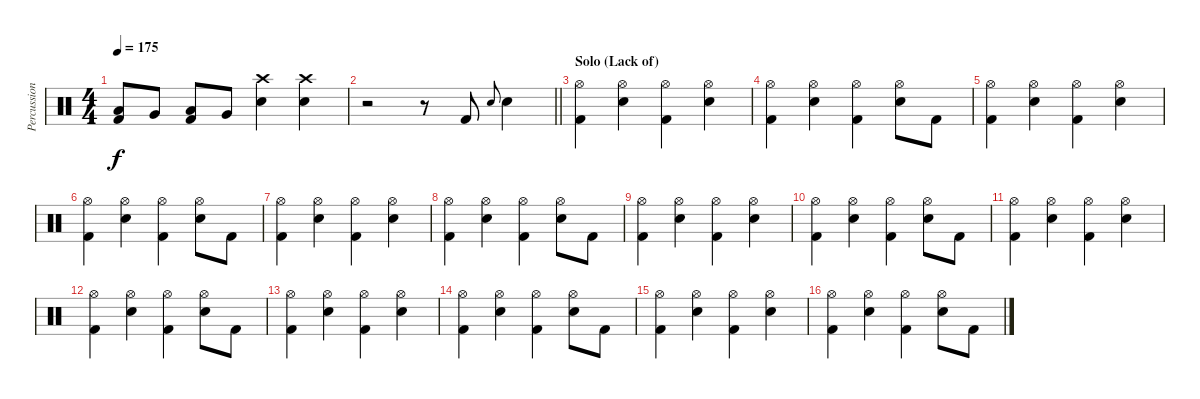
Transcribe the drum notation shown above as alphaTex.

\track ("Percussion" "Percussion") {instrument percussion}
\staff {score}
\articulation defaults
\ts (4 4)
\tempo 175
\clef neutral
\ks c
("Low Floor Tom (hit)" "Kick (hit) 2").8{dy f} "Very Low Tom (hit)".8 ("Low Floor Tom (hit)" "Kick (hit) 2").8 "Very Low Tom (hit)".8 ("Crash high (hit)" "Electric Snare (hit)").4 ("Crash high (hit)" "Electric Snare (hit)").4 |
\barLineRight lightlight
r.2 r.8 "Kick (hit) 2".8 "Electric Snare (hit)".8{gr onbeat} "Electric Snare (hit)".4 |
\section ("" "Solo (Lack of)")
("Hi-Hat (open)" "Kick (hit) 2").4 ("Hi-Hat (open)" "Electric Snare (hit)").4 ("Hi-Hat (open)" "Kick (hit) 2").4 ("Hi-Hat (open)" "Electric Snare (hit)").4 |
("Hi-Hat (open)" "Kick (hit) 2").4 ("Hi-Hat (open)" "Electric Snare (hit)").4 ("Hi-Hat (open)" "Kick (hit) 2").4 ("Hi-Hat (open)" "Electric Snare (hit)").8 "Kick (hit) 2".8 |
("Hi-Hat (open)" "Kick (hit) 2").4 ("Hi-Hat (open)" "Electric Snare (hit)").4 ("Hi-Hat (open)" "Kick (hit) 2").4 ("Hi-Hat (open)" "Electric Snare (hit)").4 |
("Hi-Hat (open)" "Kick (hit) 2").4 ("Hi-Hat (open)" "Electric Snare (hit)").4 ("Hi-Hat (open)" "Kick (hit) 2").4 ("Hi-Hat (open)" "Electric Snare (hit)").8 "Kick (hit) 2".8 |
("Hi-Hat (open)" "Kick (hit) 2").4 ("Hi-Hat (open)" "Electric Snare (hit)").4 ("Hi-Hat (open)" "Kick (hit) 2").4 ("Hi-Hat (open)" "Electric Snare (hit)").4 |
("Hi-Hat (open)" "Kick (hit) 2").4 ("Hi-Hat (open)" "Electric Snare (hit)").4 ("Hi-Hat (open)" "Kick (hit) 2").4 ("Hi-Hat (open)" "Electric Snare (hit)").8 "Kick (hit) 2".8 |
("Hi-Hat (open)" "Kick (hit) 2").4 ("Hi-Hat (open)" "Electric Snare (hit)").4 ("Hi-Hat (open)" "Kick (hit) 2").4 ("Hi-Hat (open)" "Electric Snare (hit)").4 |
("Hi-Hat (open)" "Kick (hit) 2").4 ("Hi-Hat (open)" "Electric Snare (hit)").4 ("Hi-Hat (open)" "Kick (hit) 2").4 ("Hi-Hat (open)" "Electric Snare (hit)").8 "Kick (hit) 2".8 |
("Hi-Hat (open)" "Kick (hit) 2").4 ("Hi-Hat (open)" "Electric Snare (hit)").4 ("Hi-Hat (open)" "Kick (hit) 2").4 ("Hi-Hat (open)" "Electric Snare (hit)").4 |
("Hi-Hat (open)" "Kick (hit) 2").4 ("Hi-Hat (open)" "Electric Snare (hit)").4 ("Hi-Hat (open)" "Kick (hit) 2").4 ("Hi-Hat (open)" "Electric Snare (hit)").8 "Kick (hit) 2".8 |
("Hi-Hat (open)" "Kick (hit) 2").4 ("Hi-Hat (open)" "Electric Snare (hit)").4 ("Hi-Hat (open)" "Kick (hit) 2").4 ("Hi-Hat (open)" "Electric Snare (hit)").4 |
("Hi-Hat (open)" "Kick (hit) 2").4 ("Hi-Hat (open)" "Electric Snare (hit)").4 ("Hi-Hat (open)" "Kick (hit) 2").4 ("Hi-Hat (open)" "Electric Snare (hit)").8 "Kick (hit) 2".8 |
("Hi-Hat (open)" "Kick (hit) 2").4 ("Hi-Hat (open)" "Electric Snare (hit)").4 ("Hi-Hat (open)" "Kick (hit) 2").4 ("Hi-Hat (open)" "Electric Snare (hit)").4 |
("Hi-Hat (open)" "Kick (hit) 2").4 ("Hi-Hat (open)" "Electric Snare (hit)").4 ("Hi-Hat (open)" "Kick (hit) 2").4 ("Hi-Hat (open)" "Electric Snare (hit)").8 "Kick (hit) 2".8
